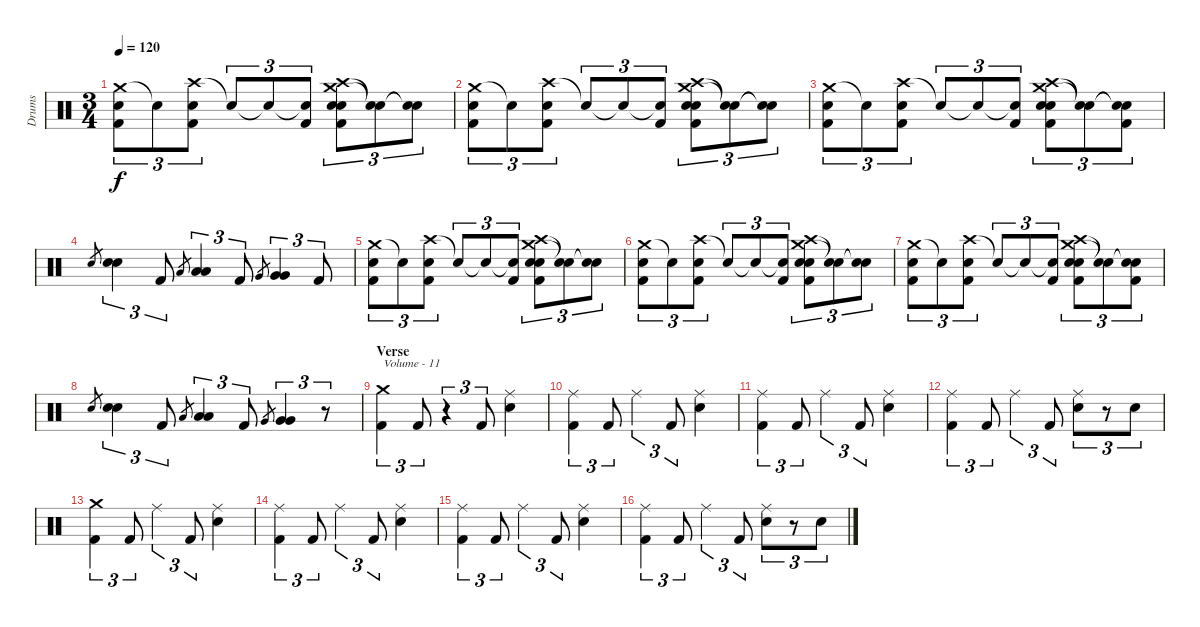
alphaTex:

\track ("Drums" "Drums") {instrument percussion}
\staff {score}
\articulation defaults
\ts (3 4)
\tempo 120
\clef neutral
\ks c
("Crash medium (hit)" "Snare (hit) 2" "Kick (hit) 2").8{tu (3 2) dy f} "Snare (hit)"{t}.8{tu (3 2)} ("Crash high (hit)" "Snare (hit) 2" "Kick (hit) 2").8{tu (3 2)} "Snare (hit)"{t}.8{tu (3 2)} "Snare (hit)"{t}.8{tu (3 2)} ("Snare (hit)"{t} "Kick (hit) 2").8{tu (3 2)} ("Crash medium (hit)" "Crash high (hit)" "Snare (hit) 2" "Electric Snare (hit)" "Kick (hit) 2").8{tu (3 2)} ("Snare (hit)"{t} "Snare (hit)"{t}).8{tu (3 2)} ("Snare (hit)"{t} "Snare (hit)"{t}).8{tu (3 2)} |
("Crash medium (hit)" "Snare (hit) 2" "Kick (hit) 2").8{tu (3 2)} "Snare (hit)"{t}.8{tu (3 2)} ("Crash high (hit)" "Snare (hit) 2" "Kick (hit) 2").8{tu (3 2)} "Snare (hit)"{t}.8{tu (3 2)} "Snare (hit)"{t}.8{tu (3 2)} ("Snare (hit)"{t} "Kick (hit) 2").8{tu (3 2)} ("Crash medium (hit)" "Crash high (hit)" "Snare (hit) 2" "Electric Snare (hit)" "Kick (hit) 2").8{tu (3 2)} ("Snare (hit)"{t} "Snare (hit)"{t}).8{tu (3 2)} ("Snare (hit)"{t} "Snare (hit)"{t}).8{tu (3 2)} |
("Crash medium (hit)" "Snare (hit) 2" "Kick (hit) 2").8{tu (3 2)} "Snare (hit)"{t}.8{tu (3 2)} ("Crash high (hit)" "Snare (hit) 2" "Kick (hit) 2").8{tu (3 2)} "Snare (hit)"{t}.8{tu (3 2)} "Snare (hit)"{t}.8{tu (3 2)} ("Snare (hit)"{t} "Kick (hit) 2").8{tu (3 2)} ("Crash medium (hit)" "Crash high (hit)" "Snare (hit) 2" "Electric Snare (hit)" "Kick (hit) 2").8{tu (3 2)} ("Snare (hit)"{t} "Snare (hit)"{t}).8{tu (3 2)} ("Snare (hit)"{t} "Snare (hit)"{t} "Kick (hit) 2").8{tu (3 2)} |
"Electric Snare (hit)".8{gr} ("Electric Snare (hit)" "Electric Snare (hit)").4{tu (3 2)} "Kick (hit) 2".8{tu (3 2)} "Low Tom (hit)".8{gr} ("Low Tom (hit)" "Low Tom (hit)").4{tu (3 2)} "Kick (hit) 2".8{tu (3 2)} "Very Low Tom (hit)".8{gr} ("Very Low Tom (hit)" "Very Low Tom (hit)").4{tu (3 2)} "Kick (hit) 2".8{tu (3 2)} |
("Crash medium (hit)" "Snare (hit) 2" "Kick (hit) 2").8{tu (3 2)} "Snare (hit)"{t}.8{tu (3 2)} ("Crash high (hit)" "Snare (hit) 2" "Kick (hit) 2").8{tu (3 2)} "Snare (hit)"{t}.8{tu (3 2)} "Snare (hit)"{t}.8{tu (3 2)} ("Snare (hit)"{t} "Kick (hit) 2").8{tu (3 2)} ("Crash medium (hit)" "Crash high (hit)" "Snare (hit) 2" "Electric Snare (hit)" "Kick (hit) 2").8{tu (3 2)} ("Snare (hit)"{t} "Snare (hit)"{t}).8{tu (3 2)} ("Snare (hit)"{t} "Snare (hit)"{t}).8{tu (3 2)} |
("Crash medium (hit)" "Snare (hit) 2" "Kick (hit) 2").8{tu (3 2)} "Snare (hit)"{t}.8{tu (3 2)} ("Crash high (hit)" "Snare (hit) 2" "Kick (hit) 2").8{tu (3 2)} "Snare (hit)"{t}.8{tu (3 2)} "Snare (hit)"{t}.8{tu (3 2)} ("Snare (hit)"{t} "Kick (hit) 2").8{tu (3 2)} ("Crash medium (hit)" "Crash high (hit)" "Snare (hit) 2" "Electric Snare (hit)" "Kick (hit) 2").8{tu (3 2)} ("Snare (hit)"{t} "Snare (hit)"{t}).8{tu (3 2)} ("Snare (hit)"{t} "Snare (hit)"{t}).8{tu (3 2)} |
("Crash medium (hit)" "Snare (hit) 2" "Kick (hit) 2").8{tu (3 2)} "Snare (hit)"{t}.8{tu (3 2)} ("Crash high (hit)" "Snare (hit) 2" "Kick (hit) 2").8{tu (3 2)} "Snare (hit)"{t}.8{tu (3 2)} "Snare (hit)"{t}.8{tu (3 2)} ("Snare (hit)"{t} "Kick (hit) 2").8{tu (3 2)} ("Crash medium (hit)" "Crash high (hit)" "Snare (hit) 2" "Electric Snare (hit)" "Kick (hit) 2").8{tu (3 2)} ("Snare (hit)"{t} "Snare (hit)"{t}).8{tu (3 2)} ("Snare (hit)"{t} "Snare (hit)"{t} "Kick (hit) 2").8{tu (3 2)} |
"Electric Snare (hit)".8{gr} ("Electric Snare (hit)" "Electric Snare (hit)").4{tu (3 2)} "Kick (hit) 2".8{tu (3 2)} "Low Tom (hit)".8{gr} ("Low Tom (hit)" "Low Tom (hit)").4{tu (3 2)} "Kick (hit) 2".8{tu (3 2)} "Very Low Tom (hit)".8{gr} ("Very Low Tom (hit)" "Very Low Tom (hit)").4{tu (3 2)} r.8{tu (3 2)} |
\section ("" "Verse")
("Crash medium (hit)" "Kick (hit) 2").4{tu (3 2) txt "Volume - 11" volume 11} "Kick (hit) 2".8{tu (3 2)} r.4{tu (3 2)} "Kick (hit) 2".8{tu (3 2)} ("Ride (middle)" "Snare (hit) 2").4 |
("Ride (middle)" "Kick (hit) 2").4{tu (3 2)} "Kick (hit) 2".8{tu (3 2)} "Ride (middle)".4{tu (3 2)} "Kick (hit) 2".8{tu (3 2)} ("Ride (middle)" "Snare (hit) 2").4 |
("Ride (middle)" "Kick (hit) 2").4{tu (3 2)} "Kick (hit) 2".8{tu (3 2)} "Ride (middle)".4{tu (3 2)} "Kick (hit) 2".8{tu (3 2)} ("Ride (middle)" "Snare (hit) 2").4 |
("Ride (middle)" "Kick (hit) 2").4{tu (3 2)} "Kick (hit) 2".8{tu (3 2)} "Ride (middle)".4{tu (3 2)} "Kick (hit) 2".8{tu (3 2)} ("Ride (middle)" "Snare (hit) 2").8{tu (3 2)} r.8{tu (3 2)} "Snare (hit) 2".8{tu (3 2)} |
("Crash medium (hit)" "Kick (hit) 2").4{tu (3 2)} "Kick (hit) 2".8{tu (3 2)} "Ride (middle)".4{tu (3 2)} "Kick (hit) 2".8{tu (3 2)} ("Ride (middle)" "Snare (hit) 2").4 |
("Ride (middle)" "Kick (hit) 2").4{tu (3 2)} "Kick (hit) 2".8{tu (3 2)} "Ride (middle)".4{tu (3 2)} "Kick (hit) 2".8{tu (3 2)} ("Ride (middle)" "Snare (hit) 2").4 |
("Ride (middle)" "Kick (hit) 2").4{tu (3 2)} "Kick (hit) 2".8{tu (3 2)} "Ride (middle)".4{tu (3 2)} "Kick (hit) 2".8{tu (3 2)} ("Ride (middle)" "Snare (hit) 2").4 |
("Ride (middle)" "Kick (hit) 2").4{tu (3 2)} "Kick (hit) 2".8{tu (3 2)} "Ride (middle)".4{tu (3 2)} "Kick (hit) 2".8{tu (3 2)} ("Ride (middle)" "Snare (hit) 2").8{tu (3 2)} r.8{tu (3 2)} "Snare (hit) 2".8{tu (3 2)}
